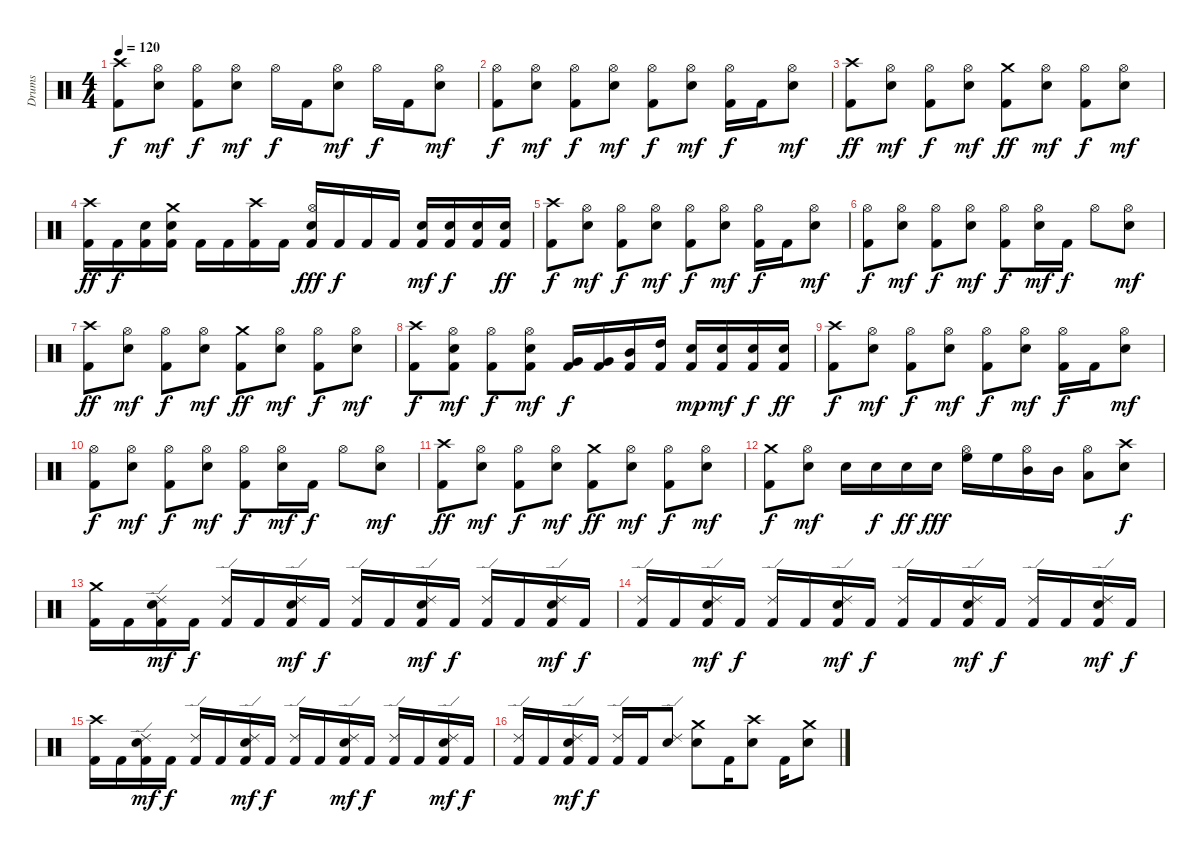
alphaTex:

\track ("Drums" "Drums") {instrument percussion}
\staff {score}
\articulation defaults
\ts (4 4)
\tempo 120
\clef neutral
\ks c
("Crash high (hit)" "Kick (hit) 2").8{dy f} ("Hi-Hat (open)" "Snare (hit) 2").8{dy mf} ("Hi-Hat (open)" "Kick (hit) 2").8{dy f} ("Hi-Hat (open)" "Snare (hit) 2").8{dy mf} "Hi-Hat (open)".16{dy f} "Kick (hit) 2".16 ("Hi-Hat (open)" "Snare (hit) 2").8{dy mf} "Hi-Hat (open)".16{dy f} "Kick (hit) 2".16 ("Hi-Hat (open)" "Snare (hit) 2").8{dy mf} |
("Hi-Hat (open)" "Kick (hit) 2").8{dy f} ("Hi-Hat (open)" "Snare (hit) 2").8{dy mf} ("Hi-Hat (open)" "Kick (hit) 2").8{dy f} ("Hi-Hat (open)" "Snare (hit) 2").8{dy mf} ("Hi-Hat (open)" "Kick (hit) 2").8{dy f} ("Hi-Hat (open)" "Snare (hit) 2").8{dy mf} ("Hi-Hat (open)" "Kick (hit) 2").16{dy f} "Kick (hit) 2".16 ("Hi-Hat (open)" "Snare (hit) 2").8{dy mf} |
("Crash high (hit)" "Kick (hit) 2").8{dy ff} ("Hi-Hat (open)" "Snare (hit) 2").8{dy mf} ("Hi-Hat (open)" "Kick (hit) 2").8{dy f} ("Hi-Hat (open)" "Snare (hit) 2").8{dy mf} ("Crash medium (hit)" "Kick (hit) 2").8{dy ff} ("Hi-Hat (open)" "Snare (hit) 2").8{dy mf} ("Hi-Hat (open)" "Kick (hit) 2").8{dy f} ("Hi-Hat (open)" "Snare (hit) 2").8{dy mf} |
("Crash high (hit)" "Kick (hit) 2").16{dy ff} "Kick (hit) 2".16{dy f} ("Snare (hit) 2" "Kick (hit) 2").16 ("Crash medium (hit)" "Snare (hit) 2" "Kick (hit) 2").16 "Kick (hit) 2".16 "Kick (hit) 2".16 ("Crash high (hit)" "Kick (hit) 2").16 "Kick (hit) 2".16 ("Hi-Hat (open)" "Snare (hit) 2" "Kick (hit) 2").16{dy fff} "Kick (hit) 2".16{dy f} "Kick (hit) 2".16 "Kick (hit) 2".16 ("Snare (hit) 2" "Kick (hit) 2").16{dy mf} ("Snare (hit) 2" "Kick (hit) 2").16{dy f} ("Snare (hit) 2" "Kick (hit) 2").16 ("Snare (hit) 2" "Kick (hit) 2").16{dy ff} |
("Crash high (hit)" "Kick (hit) 2").8{dy f} ("Hi-Hat (open)" "Snare (hit) 2").8{dy mf} ("Hi-Hat (open)" "Kick (hit) 2").8{dy f} ("Hi-Hat (open)" "Snare (hit) 2").8{dy mf} ("Hi-Hat (open)" "Kick (hit) 2").8{dy f} ("Hi-Hat (open)" "Snare (hit) 2").8{dy mf} ("Hi-Hat (open)" "Kick (hit) 2").16{dy f} "Kick (hit) 2".16 ("Hi-Hat (open)" "Snare (hit) 2").8{dy mf} |
("Hi-Hat (open)" "Kick (hit) 2").8{dy f} ("Hi-Hat (open)" "Snare (hit) 2").8{dy mf} ("Hi-Hat (open)" "Kick (hit) 2").8{dy f} ("Hi-Hat (open)" "Snare (hit) 2").8{dy mf} ("Hi-Hat (open)" "Kick (hit) 2").8{dy f} ("Hi-Hat (open)" "Snare (hit) 2").16{dy mf} "Kick (hit) 2".16{dy f} "Hi-Hat (open)".8 ("Hi-Hat (open)" "Snare (hit) 2").8{dy mf} |
("Crash high (hit)" "Kick (hit) 2").8{dy ff} ("Hi-Hat (open)" "Snare (hit) 2").8{dy mf} ("Hi-Hat (open)" "Kick (hit) 2").8{dy f} ("Hi-Hat (open)" "Snare (hit) 2").8{dy mf} ("Crash medium (hit)" "Kick (hit) 2").8{dy ff} ("Hi-Hat (open)" "Snare (hit) 2").8{dy mf} ("Hi-Hat (open)" "Kick (hit) 2").8{dy f} ("Hi-Hat (open)" "Snare (hit) 2").8{dy mf} |
("Crash high (hit)" "Kick (hit) 2").8{dy f} ("Hi-Hat (open)" "Snare (hit) 2" "Kick (hit) 2").8{dy mf} ("Hi-Hat (open)" "Kick (hit) 2").8{dy f} ("Hi-Hat (open)" "Snare (hit) 2" "Kick (hit) 2").8{dy mf} ("Very Low Tom (hit)" "Kick (hit) 2").16{dy f} ("Very Low Tom (hit)" "Kick (hit) 2").16 ("Mid Tom (hit)" "Kick (hit) 2").16 ("High Tom (hit)" "Kick (hit) 2").16 ("Snare (hit) 2" "Kick (hit) 2").16{dy mp} ("Snare (hit) 2" "Kick (hit) 2").16{dy mf} ("Snare (hit) 2" "Kick (hit) 2").16{dy f} ("Snare (hit) 2" "Kick (hit) 2").16{dy ff} |
("Crash high (hit)" "Kick (hit) 2").8{dy f} ("Hi-Hat (open)" "Snare (hit) 2").8{dy mf} ("Hi-Hat (open)" "Kick (hit) 2").8{dy f} ("Hi-Hat (open)" "Snare (hit) 2").8{dy mf} ("Hi-Hat (open)" "Kick (hit) 2").8{dy f} ("Hi-Hat (open)" "Snare (hit) 2").8{dy mf} ("Hi-Hat (open)" "Kick (hit) 2").16{dy f} "Kick (hit) 2".16 ("Hi-Hat (open)" "Snare (hit) 2").8{dy mf} |
("Hi-Hat (open)" "Kick (hit) 2").8{dy f} ("Hi-Hat (open)" "Snare (hit) 2").8{dy mf} ("Hi-Hat (open)" "Kick (hit) 2").8{dy f} ("Hi-Hat (open)" "Snare (hit) 2").8{dy mf} ("Hi-Hat (open)" "Kick (hit) 2").8{dy f} ("Hi-Hat (open)" "Snare (hit) 2").16{dy mf} "Kick (hit) 2".16{dy f} "Hi-Hat (open)".8 ("Hi-Hat (open)" "Snare (hit) 2").8{dy mf} |
("Crash high (hit)" "Kick (hit) 2").8{dy ff} ("Hi-Hat (open)" "Snare (hit) 2").8{dy mf} ("Hi-Hat (open)" "Kick (hit) 2").8{dy f} ("Hi-Hat (open)" "Snare (hit) 2").8{dy mf} ("Crash medium (hit)" "Kick (hit) 2").8{dy ff} ("Hi-Hat (open)" "Snare (hit) 2").8{dy mf} ("Hi-Hat (open)" "Kick (hit) 2").8{dy f} ("Hi-Hat (open)" "Snare (hit) 2").8{dy mf} |
("Crash medium (hit)" "Kick (hit) 2").8{dy f} ("Hi-Hat (open)" "Snare (hit) 2").8{dy mf} "Snare (hit) 2".16 "Snare (hit) 2".16{dy f} "Snare (hit) 2".16{dy ff} "Snare (hit) 2".16{dy fff} ("Hi-Hat (open)" "High Floor Tom (hit)").16 "High Floor Tom (hit)".16 ("Hi-Hat (open)" "Mid Tom (hit)").16 "Mid Tom (hit)".16 ("Hi-Hat (open)" "Low Tom (hit)").8 ("Crash high (hit)" "Snare (hit) 2").8{dy f} |
("Crash medium (hit)" "Kick (hit) 2").16 "Kick (hit) 2".16 ("Ride (edge) 2" "Snare (hit) 2" "Kick (hit) 2").16{dy mf} "Kick (hit) 2".16{dy f} ("Ride (edge) 2" "Kick (hit) 2").16 "Kick (hit) 2".16 ("Ride (edge) 2" "Snare (hit) 2" "Kick (hit) 2").16{dy mf} "Kick (hit) 2".16{dy f} ("Ride (edge) 2" "Kick (hit) 2").16 "Kick (hit) 2".16 ("Ride (edge) 2" "Snare (hit) 2" "Kick (hit) 2").16{dy mf} "Kick (hit) 2".16{dy f} ("Ride (edge) 2" "Kick (hit) 2").16 "Kick (hit) 2".16 ("Ride (edge) 2" "Snare (hit) 2" "Kick (hit) 2").16{dy mf} "Kick (hit) 2".16{dy f} |
("Ride (edge) 2" "Kick (hit) 2").16 "Kick (hit) 2".16 ("Ride (edge) 2" "Snare (hit) 2" "Kick (hit) 2").16{dy mf} "Kick (hit) 2".16{dy f} ("Ride (edge) 2" "Kick (hit) 2").16 "Kick (hit) 2".16 ("Ride (edge) 2" "Snare (hit) 2" "Kick (hit) 2").16{dy mf} "Kick (hit) 2".16{dy f} ("Ride (edge) 2" "Kick (hit) 2").16 "Kick (hit) 2".16 ("Ride (edge) 2" "Snare (hit) 2" "Kick (hit) 2").16{dy mf} "Kick (hit) 2".16{dy f} ("Ride (edge) 2" "Kick (hit) 2").16 "Kick (hit) 2".16 ("Ride (edge) 2" "Snare (hit) 2" "Kick (hit) 2").16{dy mf} "Kick (hit) 2".16{dy f} |
("Crash high (hit)" "Kick (hit) 2").16 "Kick (hit) 2".16 ("Ride (edge) 2" "Snare (hit) 2" "Kick (hit) 2").16{dy mf} "Kick (hit) 2".16{dy f} ("Ride (edge) 2" "Kick (hit) 2").16 "Kick (hit) 2".16 ("Ride (edge) 2" "Snare (hit) 2" "Kick (hit) 2").16{dy mf} "Kick (hit) 2".16{dy f} ("Ride (edge) 2" "Kick (hit) 2").16 "Kick (hit) 2".16 ("Ride (edge) 2" "Snare (hit) 2" "Kick (hit) 2").16{dy mf} "Kick (hit) 2".16{dy f} ("Ride (edge) 2" "Kick (hit) 2").16 "Kick (hit) 2".16 ("Ride (edge) 2" "Snare (hit) 2" "Kick (hit) 2").16{dy mf} "Kick (hit) 2".16{dy f} |
("Ride (edge) 2" "Kick (hit) 2").16 "Kick (hit) 2".16 ("Ride (edge) 2" "Snare (hit) 2" "Kick (hit) 2").16{dy mf} "Kick (hit) 2".16{dy f} ("Ride (edge) 2" "Kick (hit) 2").16 "Kick (hit) 2".16 ("Ride (edge) 2" "Snare (hit) 2").8 ("Crash medium (hit)" "Snare (hit) 2").8 "Kick (hit) 2".16 ("Crash high (hit)" "Snare (hit) 2").8 "Kick (hit) 2".16 ("Crash medium (hit)" "Snare (hit) 2").8
